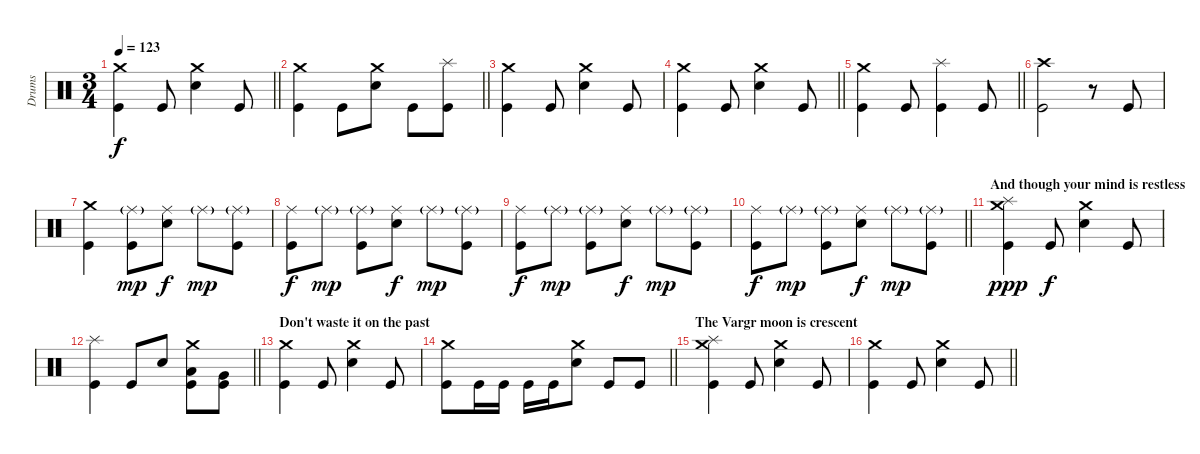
\track ("Drums" "Drums") {instrument percussion}
\staff {score}
\articulation defaults
\ts (3 4)
\tempo 123
\clef neutral
\barLineRight lightlight
\ks c
("Crash medium (hit)" "Kick (hit)").4{dy f} "Kick (hit)".8 ("Crash medium (hit)" "Snare (hit) 2").4 "Kick (hit)".8 |
\barLineRight lightlight
("Crash medium (hit)" "Kick (hit)").4 "Kick (hit)".8 ("Crash medium (hit)" "Snare (hit) 2").8 "Kick (hit)".8 ("Splash (hit)" "Kick (hit)").8 |
("Crash medium (hit)" "Kick (hit)").4 "Kick (hit)".8 ("Crash medium (hit)" "Snare (hit) 2").4 "Kick (hit)".8 |
\barLineRight lightlight
("Crash medium (hit)" "Kick (hit)").4 "Kick (hit)".8 ("Crash medium (hit)" "Snare (hit) 2").4 "Kick (hit)".8 |
\barLineRight lightlight
("Crash medium (hit)" "Kick (hit)").4 "Kick (hit)".8 ("Splash (hit)" "Kick (hit)").4 "Kick (hit)".8 |
("Crash high (hit)" "Kick (hit)").2 r.8 "Kick (hit)".8 |
("Crash medium (hit)" "Kick (hit)").4 ("Ride (middle)"{g} "Kick (hit)").8{dy mp} ("Ride (middle)" "Snare (hit) 2").8{dy f} "Ride (middle)"{g}.8{dy mp} ("Ride (middle)"{g} "Kick (hit)").8 |
("Ride (middle)" "Kick (hit)").8{dy f} "Ride (middle)"{g}.8{dy mp} ("Ride (middle)"{g} "Kick (hit)").8 ("Ride (middle)" "Snare (hit) 2").8{dy f} "Ride (middle)"{g}.8{dy mp} ("Ride (middle)"{g} "Kick (hit)").8 |
("Ride (middle)" "Kick (hit)").8{dy f} "Ride (middle)"{g}.8{dy mp} ("Ride (middle)"{g} "Kick (hit)").8 ("Ride (middle)" "Snare (hit) 2").8{dy f} "Ride (middle)"{g}.8{dy mp} ("Ride (middle)"{g} "Kick (hit)").8 |
\barLineRight lightlight
("Ride (middle)" "Kick (hit)").8{dy f} "Ride (middle)"{g}.8{dy mp} ("Ride (middle)"{g} "Kick (hit)").8 ("Ride (middle)" "Snare (hit) 2").8{dy f} "Ride (middle)"{g}.8{dy mp} ("Ride (middle)"{g} "Kick (hit)").8 |
\section ("" "And though your mind is restless")
("Crash medium (hit)" "Splash (hit)" "Kick (hit)").4{dy ppp} "Kick (hit)".8{dy f} ("Crash medium (hit)" "Snare (hit) 2").4 "Kick (hit)".8 |
\barLineRight lightlight
("Splash (hit)" "Kick (hit)").4 "Kick (hit)".8 "Snare (hit) 2".8 ("Crash medium (hit)" "Low Tom (hit)" "Kick (hit)").8 ("Very Low Tom (hit)" "Kick (hit)").8 |
\section ("" "Don't waste it on the past ")
("Crash medium (hit)" "Kick (hit)").4 "Kick (hit)".8 ("Crash medium (hit)" "Snare (hit) 2").4 "Kick (hit)".8 |
\barLineRight lightlight
("Crash medium (hit)" "Kick (hit)").8 "Kick (hit)".16 "Kick (hit)".16 "Kick (hit)".16 "Kick (hit)".16 ("Crash medium (hit)" "Snare (hit) 2").8 "Kick (hit)".8 "Kick (hit)".8 |
\section ("" "The Vargr moon is crescent")
("Crash medium (hit)" "Splash (hit)" "Kick (hit)").4 "Kick (hit)".8 ("Crash medium (hit)" "Snare (hit) 2").4 "Kick (hit)".8 |
\barLineRight lightlight
("Crash medium (hit)" "Kick (hit)").4 "Kick (hit)".8 ("Crash medium (hit)" "Snare (hit) 2").4 "Kick (hit)".8
